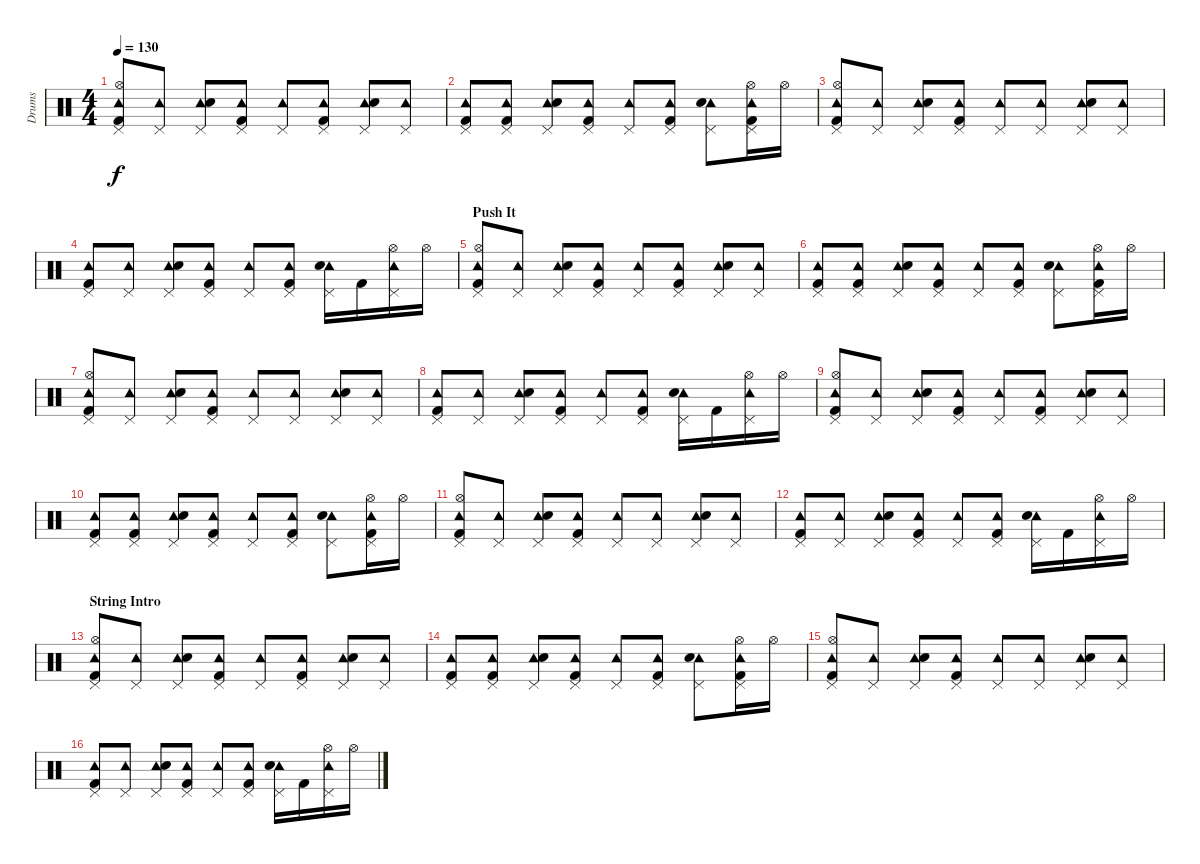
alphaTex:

\track ("Drums" "Drums") {instrument percussion}
\staff {score}
\articulation defaults
\ts (4 4)
\tempo 130
\clef neutral
\ks c
("Tambourine (hit)" "Pedal Hi-Hat (hit)" "Hi-Hat (open)" "Kick (hit) 2").8{dy f} ("Tambourine (hit)" "Pedal Hi-Hat (hit)").8 ("Tambourine (hit)" "Pedal Hi-Hat (hit)" "Electric Snare (hit)").8 ("Tambourine (hit)" "Pedal Hi-Hat (hit)" "Kick (hit) 2").8 ("Tambourine (hit)" "Pedal Hi-Hat (hit)").8 ("Tambourine (hit)" "Pedal Hi-Hat (hit)" "Kick (hit) 2").8 ("Tambourine (hit)" "Pedal Hi-Hat (hit)" "Electric Snare (hit)").8 ("Tambourine (hit)" "Pedal Hi-Hat (hit)").8 |
("Tambourine (hit)" "Pedal Hi-Hat (hit)" "Kick (hit) 2").8 ("Tambourine (hit)" "Pedal Hi-Hat (hit)" "Kick (hit) 2").8 ("Tambourine (hit)" "Pedal Hi-Hat (hit)" "Electric Snare (hit)").8 ("Tambourine (hit)" "Pedal Hi-Hat (hit)" "Kick (hit) 2").8 ("Tambourine (hit)" "Pedal Hi-Hat (hit)").8 ("Tambourine (hit)" "Pedal Hi-Hat (hit)" "Kick (hit) 2").8 ("Tambourine (hit)" "Pedal Hi-Hat (hit)" "Electric Snare (hit)").8 ("Tambourine (hit)" "Pedal Hi-Hat (hit)" "Hi-Hat (open)" "Kick (hit) 2").16 "Hi-Hat (open)".16 |
("Tambourine (hit)" "Pedal Hi-Hat (hit)" "Hi-Hat (open)" "Kick (hit) 2").8 ("Tambourine (hit)" "Pedal Hi-Hat (hit)").8 ("Tambourine (hit)" "Pedal Hi-Hat (hit)" "Electric Snare (hit)").8 ("Tambourine (hit)" "Pedal Hi-Hat (hit)" "Kick (hit) 2").8 ("Tambourine (hit)" "Pedal Hi-Hat (hit)").8 ("Tambourine (hit)" "Pedal Hi-Hat (hit)").8 ("Tambourine (hit)" "Pedal Hi-Hat (hit)" "Electric Snare (hit)").8 ("Tambourine (hit)" "Pedal Hi-Hat (hit)").8 |
("Tambourine (hit)" "Pedal Hi-Hat (hit)" "Kick (hit) 2").8 ("Tambourine (hit)" "Pedal Hi-Hat (hit)").8 ("Tambourine (hit)" "Pedal Hi-Hat (hit)" "Electric Snare (hit)").8 ("Tambourine (hit)" "Pedal Hi-Hat (hit)" "Kick (hit) 2").8 ("Tambourine (hit)" "Pedal Hi-Hat (hit)").8 ("Tambourine (hit)" "Pedal Hi-Hat (hit)" "Kick (hit) 2").8 ("Tambourine (hit)" "Pedal Hi-Hat (hit)" "Electric Snare (hit)").16 "Kick (hit) 2".16 ("Tambourine (hit)" "Pedal Hi-Hat (hit)" "Hi-Hat (open)").16 "Hi-Hat (open)".16 |
\section ("" "Push It")
("Tambourine (hit)" "Pedal Hi-Hat (hit)" "Hi-Hat (open)" "Kick (hit) 2").8 ("Tambourine (hit)" "Pedal Hi-Hat (hit)").8 ("Tambourine (hit)" "Pedal Hi-Hat (hit)" "Electric Snare (hit)").8 ("Tambourine (hit)" "Pedal Hi-Hat (hit)" "Kick (hit) 2").8 ("Tambourine (hit)" "Pedal Hi-Hat (hit)").8 ("Tambourine (hit)" "Pedal Hi-Hat (hit)" "Kick (hit) 2").8 ("Tambourine (hit)" "Pedal Hi-Hat (hit)" "Electric Snare (hit)").8 ("Tambourine (hit)" "Pedal Hi-Hat (hit)").8 |
("Tambourine (hit)" "Pedal Hi-Hat (hit)" "Kick (hit) 2").8 ("Tambourine (hit)" "Pedal Hi-Hat (hit)" "Kick (hit) 2").8 ("Tambourine (hit)" "Pedal Hi-Hat (hit)" "Electric Snare (hit)").8 ("Tambourine (hit)" "Pedal Hi-Hat (hit)" "Kick (hit) 2").8 ("Tambourine (hit)" "Pedal Hi-Hat (hit)").8 ("Tambourine (hit)" "Pedal Hi-Hat (hit)" "Kick (hit) 2").8 ("Tambourine (hit)" "Pedal Hi-Hat (hit)" "Electric Snare (hit)").8 ("Tambourine (hit)" "Pedal Hi-Hat (hit)" "Hi-Hat (open)" "Kick (hit) 2").16 "Hi-Hat (open)".16 |
("Tambourine (hit)" "Pedal Hi-Hat (hit)" "Hi-Hat (open)" "Kick (hit) 2").8 ("Tambourine (hit)" "Pedal Hi-Hat (hit)").8 ("Tambourine (hit)" "Pedal Hi-Hat (hit)" "Electric Snare (hit)").8 ("Tambourine (hit)" "Pedal Hi-Hat (hit)" "Kick (hit) 2").8 ("Tambourine (hit)" "Pedal Hi-Hat (hit)").8 ("Tambourine (hit)" "Pedal Hi-Hat (hit)").8 ("Tambourine (hit)" "Pedal Hi-Hat (hit)" "Electric Snare (hit)").8 ("Tambourine (hit)" "Pedal Hi-Hat (hit)").8 |
("Tambourine (hit)" "Pedal Hi-Hat (hit)" "Kick (hit) 2").8 ("Tambourine (hit)" "Pedal Hi-Hat (hit)").8 ("Tambourine (hit)" "Pedal Hi-Hat (hit)" "Electric Snare (hit)").8 ("Tambourine (hit)" "Pedal Hi-Hat (hit)" "Kick (hit) 2").8 ("Tambourine (hit)" "Pedal Hi-Hat (hit)").8 ("Tambourine (hit)" "Pedal Hi-Hat (hit)" "Kick (hit) 2").8 ("Tambourine (hit)" "Pedal Hi-Hat (hit)" "Electric Snare (hit)").16 "Kick (hit) 2".16 ("Tambourine (hit)" "Pedal Hi-Hat (hit)" "Hi-Hat (open)").16 "Hi-Hat (open)".16 |
("Tambourine (hit)" "Pedal Hi-Hat (hit)" "Hi-Hat (open)" "Kick (hit) 2").8 ("Tambourine (hit)" "Pedal Hi-Hat (hit)").8 ("Tambourine (hit)" "Pedal Hi-Hat (hit)" "Electric Snare (hit)").8 ("Tambourine (hit)" "Pedal Hi-Hat (hit)" "Kick (hit) 2").8 ("Tambourine (hit)" "Pedal Hi-Hat (hit)").8 ("Tambourine (hit)" "Pedal Hi-Hat (hit)" "Kick (hit) 2").8 ("Tambourine (hit)" "Pedal Hi-Hat (hit)" "Electric Snare (hit)").8 ("Tambourine (hit)" "Pedal Hi-Hat (hit)").8 |
("Tambourine (hit)" "Pedal Hi-Hat (hit)" "Kick (hit) 2").8 ("Tambourine (hit)" "Pedal Hi-Hat (hit)" "Kick (hit) 2").8 ("Tambourine (hit)" "Pedal Hi-Hat (hit)" "Electric Snare (hit)").8 ("Tambourine (hit)" "Pedal Hi-Hat (hit)" "Kick (hit) 2").8 ("Tambourine (hit)" "Pedal Hi-Hat (hit)").8 ("Tambourine (hit)" "Pedal Hi-Hat (hit)" "Kick (hit) 2").8 ("Tambourine (hit)" "Pedal Hi-Hat (hit)" "Electric Snare (hit)").8 ("Tambourine (hit)" "Pedal Hi-Hat (hit)" "Hi-Hat (open)" "Kick (hit) 2").16 "Hi-Hat (open)".16 |
("Tambourine (hit)" "Pedal Hi-Hat (hit)" "Hi-Hat (open)" "Kick (hit) 2").8 ("Tambourine (hit)" "Pedal Hi-Hat (hit)").8 ("Tambourine (hit)" "Pedal Hi-Hat (hit)" "Electric Snare (hit)").8 ("Tambourine (hit)" "Pedal Hi-Hat (hit)" "Kick (hit) 2").8 ("Tambourine (hit)" "Pedal Hi-Hat (hit)").8 ("Tambourine (hit)" "Pedal Hi-Hat (hit)").8 ("Tambourine (hit)" "Pedal Hi-Hat (hit)" "Electric Snare (hit)").8 ("Tambourine (hit)" "Pedal Hi-Hat (hit)").8 |
("Tambourine (hit)" "Pedal Hi-Hat (hit)" "Kick (hit) 2").8 ("Tambourine (hit)" "Pedal Hi-Hat (hit)").8 ("Tambourine (hit)" "Pedal Hi-Hat (hit)" "Electric Snare (hit)").8 ("Tambourine (hit)" "Pedal Hi-Hat (hit)" "Kick (hit) 2").8 ("Tambourine (hit)" "Pedal Hi-Hat (hit)").8 ("Tambourine (hit)" "Pedal Hi-Hat (hit)" "Kick (hit) 2").8 ("Tambourine (hit)" "Pedal Hi-Hat (hit)" "Electric Snare (hit)").16 "Kick (hit) 2".16 ("Tambourine (hit)" "Pedal Hi-Hat (hit)" "Hi-Hat (open)").16 "Hi-Hat (open)".16 |
\section ("" "String Intro")
("Tambourine (hit)" "Pedal Hi-Hat (hit)" "Hi-Hat (open)" "Kick (hit) 2").8 ("Tambourine (hit)" "Pedal Hi-Hat (hit)").8 ("Tambourine (hit)" "Pedal Hi-Hat (hit)" "Electric Snare (hit)").8 ("Tambourine (hit)" "Pedal Hi-Hat (hit)" "Kick (hit) 2").8 ("Tambourine (hit)" "Pedal Hi-Hat (hit)").8 ("Tambourine (hit)" "Pedal Hi-Hat (hit)" "Kick (hit) 2").8 ("Tambourine (hit)" "Pedal Hi-Hat (hit)" "Electric Snare (hit)").8 ("Tambourine (hit)" "Pedal Hi-Hat (hit)").8 |
("Tambourine (hit)" "Pedal Hi-Hat (hit)" "Kick (hit) 2").8 ("Tambourine (hit)" "Pedal Hi-Hat (hit)" "Kick (hit) 2").8 ("Tambourine (hit)" "Pedal Hi-Hat (hit)" "Electric Snare (hit)").8 ("Tambourine (hit)" "Pedal Hi-Hat (hit)" "Kick (hit) 2").8 ("Tambourine (hit)" "Pedal Hi-Hat (hit)").8 ("Tambourine (hit)" "Pedal Hi-Hat (hit)" "Kick (hit) 2").8 ("Tambourine (hit)" "Pedal Hi-Hat (hit)" "Electric Snare (hit)").8 ("Tambourine (hit)" "Pedal Hi-Hat (hit)" "Hi-Hat (open)" "Kick (hit) 2").16 "Hi-Hat (open)".16 |
("Tambourine (hit)" "Pedal Hi-Hat (hit)" "Hi-Hat (open)" "Kick (hit) 2").8 ("Tambourine (hit)" "Pedal Hi-Hat (hit)").8 ("Tambourine (hit)" "Pedal Hi-Hat (hit)" "Electric Snare (hit)").8 ("Tambourine (hit)" "Pedal Hi-Hat (hit)" "Kick (hit) 2").8 ("Tambourine (hit)" "Pedal Hi-Hat (hit)").8 ("Tambourine (hit)" "Pedal Hi-Hat (hit)").8 ("Tambourine (hit)" "Pedal Hi-Hat (hit)" "Electric Snare (hit)").8 ("Tambourine (hit)" "Pedal Hi-Hat (hit)").8 |
("Tambourine (hit)" "Pedal Hi-Hat (hit)" "Kick (hit) 2").8 ("Tambourine (hit)" "Pedal Hi-Hat (hit)").8 ("Tambourine (hit)" "Pedal Hi-Hat (hit)" "Electric Snare (hit)").8 ("Tambourine (hit)" "Pedal Hi-Hat (hit)" "Kick (hit) 2").8 ("Tambourine (hit)" "Pedal Hi-Hat (hit)").8 ("Tambourine (hit)" "Pedal Hi-Hat (hit)" "Kick (hit) 2").8 ("Tambourine (hit)" "Pedal Hi-Hat (hit)" "Electric Snare (hit)").16 "Kick (hit) 2".16 ("Tambourine (hit)" "Pedal Hi-Hat (hit)" "Hi-Hat (open)").16 "Hi-Hat (open)".16
